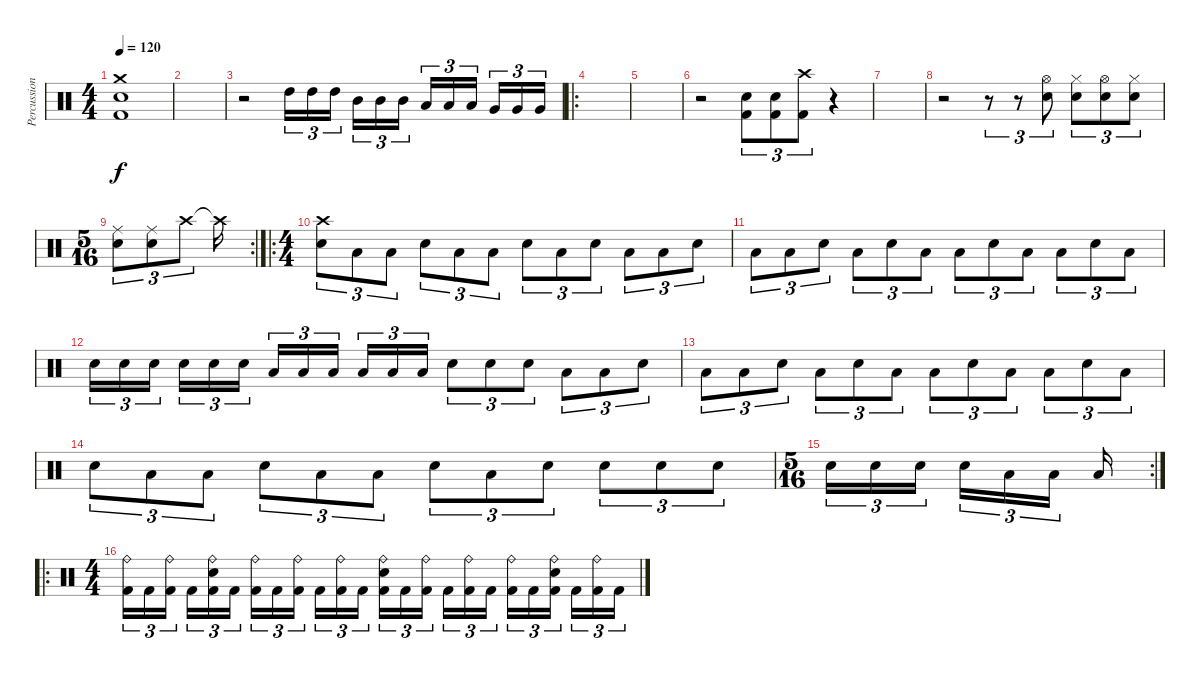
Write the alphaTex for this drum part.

\track ("Percussion" "Percussion") {instrument percussion}
\staff {score}
\articulation defaults
\ts (4 4)
\tempo 120
\clef neutral
\ks c
("Crash medium (hit)" "Electric Snare (hit)" "Kick (hit) 2").1{dy f} |
|
r.2 "High Tom (hit)".16{tu (3 2)} "High Tom (hit)".16{tu (3 2)} "High Tom (hit)".16{tu (3 2)} "Mid Tom (hit)".16{tu (3 2)} "Mid Tom (hit)".16{tu (3 2)} "Mid Tom (hit)".16{tu (3 2)} "Low Tom (hit)".16{tu (3 2)} "Low Tom (hit)".16{tu (3 2)} "Low Tom (hit)".16{tu (3 2)} "Very Low Tom (hit)".16{tu (3 2)} "Very Low Tom (hit)".16{tu (3 2)} "Very Low Tom (hit)".16{tu (3 2)} |
\ro
|
|
r.2 ("Kick (hit) 2" "Electric Snare (hit)").8{tu (3 2)} ("Kick (hit) 2" "Electric Snare (hit)").8{tu (3 2)} ("Kick (hit) 2" "Crash high (hit)").8{tu (3 2)} r.4 |
|
r.2 r.8{tu (3 2)} r.8{tu (3 2)} ("Electric Snare (hit)" "Hi-Hat (open)").8{tu (3 2)} ("Electric Snare (hit)" "Hi-Hat (closed)").8{tu (3 2)} ("Electric Snare (hit)" "Hi-Hat (open)").8{tu (3 2)} ("Electric Snare (hit)" "Hi-Hat (closed)").8{tu (3 2)} |
\rc 2
\ts (5 16)
("Electric Snare (hit)" "Ride (middle)").8{tu (3 2)} ("Electric Snare (hit)" "Ride (middle)").8{tu (3 2)} "Crash high (hit)".8{tu (3 2)} "Crash high (hit)"{t}.16 |
\ro
\ts (4 4)
("Crash high (hit)" "Electric Snare (hit)").8{tu (3 2)} "Low Tom (hit)".8{tu (3 2)} "Low Tom (hit)".8{tu (3 2)} "Electric Snare (hit)".8{tu (3 2)} "Low Tom (hit)".8{tu (3 2)} "Low Tom (hit)".8{tu (3 2)} "Electric Snare (hit)".8{tu (3 2)} "Low Tom (hit)".8{tu (3 2)} "Electric Snare (hit)".8{tu (3 2)} "Low Tom (hit)".8{tu (3 2)} "Low Tom (hit)".8{tu (3 2)} "Electric Snare (hit)".8{tu (3 2)} |
"Low Tom (hit)".8{tu (3 2)} "Low Tom (hit)".8{tu (3 2)} "Electric Snare (hit)".8{tu (3 2)} "Low Tom (hit)".8{tu (3 2)} "Electric Snare (hit)".8{tu (3 2)} "Low Tom (hit)".8{tu (3 2)} "Low Tom (hit)".8{tu (3 2)} "Electric Snare (hit)".8{tu (3 2)} "Low Tom (hit)".8{tu (3 2)} "Low Tom (hit)".8{tu (3 2)} "Electric Snare (hit)".8{tu (3 2)} "Low Tom (hit)".8{tu (3 2)} |
"Electric Snare (hit)".16{tu (3 2)} "Electric Snare (hit)".16{tu (3 2)} "Electric Snare (hit)".16{tu (3 2)} "Electric Snare (hit)".16{tu (3 2)} "Electric Snare (hit)".16{tu (3 2)} "Electric Snare (hit)".16{tu (3 2)} "Low Tom (hit)".16{tu (3 2)} "Low Tom (hit)".16{tu (3 2)} "Low Tom (hit)".16{tu (3 2)} "Low Tom (hit)".16{tu (3 2)} "Low Tom (hit)".16{tu (3 2)} "Low Tom (hit)".16{tu (3 2)} "Electric Snare (hit)".8{tu (3 2)} "Electric Snare (hit)".8{tu (3 2)} "Electric Snare (hit)".8{tu (3 2)} "Low Tom (hit)".8{tu (3 2)} "Low Tom (hit)".8{tu (3 2)} "Electric Snare (hit)".8{tu (3 2)} |
"Low Tom (hit)".8{tu (3 2)} "Low Tom (hit)".8{tu (3 2)} "Electric Snare (hit)".8{tu (3 2)} "Low Tom (hit)".8{tu (3 2)} "Electric Snare (hit)".8{tu (3 2)} "Low Tom (hit)".8{tu (3 2)} "Low Tom (hit)".8{tu (3 2)} "Electric Snare (hit)".8{tu (3 2)} "Low Tom (hit)".8{tu (3 2)} "Low Tom (hit)".8{tu (3 2)} "Electric Snare (hit)".8{tu (3 2)} "Low Tom (hit)".8{tu (3 2)} |
"Electric Snare (hit)".8{tu (3 2)} "Low Tom (hit)".8{tu (3 2)} "Low Tom (hit)".8{tu (3 2)} "Electric Snare (hit)".8{tu (3 2)} "Low Tom (hit)".8{tu (3 2)} "Low Tom (hit)".8{tu (3 2)} "Electric Snare (hit)".8{tu (3 2)} "Low Tom (hit)".8{tu (3 2)} "Electric Snare (hit)".8{tu (3 2)} "Electric Snare (hit)".8{tu (3 2)} "Electric Snare (hit)".8{tu (3 2)} "Electric Snare (hit)".8{tu (3 2)} |
\rc 2
\ts (5 16)
"Electric Snare (hit)".16{tu (3 2)} "Electric Snare (hit)".16{tu (3 2)} "Electric Snare (hit)".16{tu (3 2)} "Electric Snare (hit)".16{tu (3 2)} "Low Tom (hit)".16{tu (3 2)} "Low Tom (hit)".16{tu (3 2)} "Low Tom (hit)".16 |
\ro
\ts (4 4)
("Ride (bell)" "Kick (hit) 2").16{tu (3 2)} "Kick (hit) 2".16{tu (3 2)} ("Ride (bell)" "Kick (hit) 2").16{tu (3 2)} "Kick (hit) 2".16{tu (3 2)} ("Ride (bell)" "Electric Snare (hit)" "Kick (hit) 2").16{tu (3 2)} "Kick (hit) 2".16{tu (3 2)} ("Ride (bell)" "Kick (hit) 2").16{tu (3 2)} "Kick (hit) 2".16{tu (3 2)} ("Ride (bell)" "Kick (hit) 2").16{tu (3 2)} "Kick (hit) 2".16{tu (3 2)} ("Ride (bell)" "Kick (hit) 2").16{tu (3 2)} "Kick (hit) 2".16{tu (3 2)} ("Ride (bell)" "Electric Snare (hit)" "Kick (hit) 2").16{tu (3 2)} "Kick (hit) 2".16{tu (3 2)} ("Ride (bell)" "Kick (hit) 2").16{tu (3 2)} "Kick (hit) 2".16{tu (3 2)} ("Ride (bell)" "Kick (hit) 2").16{tu (3 2)} "Kick (hit) 2".16{tu (3 2)} ("Ride (bell)" "Kick (hit) 2").16{tu (3 2)} "Kick (hit) 2".16{tu (3 2)} ("Ride (bell)" "Electric Snare (hit)" "Kick (hit) 2").16{tu (3 2)} "Kick (hit) 2".16{tu (3 2)} ("Ride (bell)" "Kick (hit) 2").16{tu (3 2)} "Kick (hit) 2".16{tu (3 2)}
